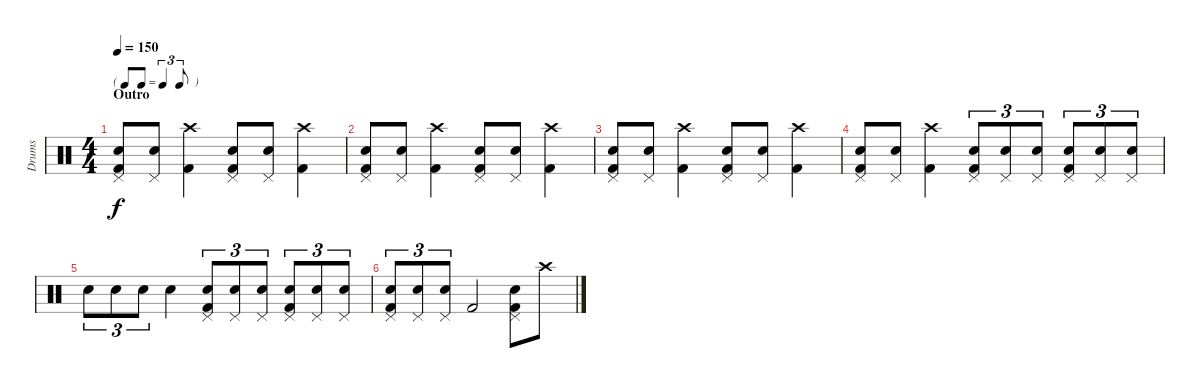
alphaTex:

\track ("Drums" "Drums") {instrument percussion}
\staff {score}
\articulation defaults
\ts (4 4)
\tf triplet8th
\section ("" "Outro")
\tempo 150
\clef neutral
\ks c
("Pedal Hi-Hat (hit)" "Snare (hit) 2" "Kick (hit) 2").8{dy f} ("Pedal Hi-Hat (hit)" "Snare (hit) 2").8 ("Crash high (hit)" "Kick (hit) 2").4 ("Pedal Hi-Hat (hit)" "Snare (hit) 2" "Kick (hit) 2").8 ("Pedal Hi-Hat (hit)" "Snare (hit) 2").8 ("Crash high (hit)" "Kick (hit) 2").4 |
("Pedal Hi-Hat (hit)" "Snare (hit) 2" "Kick (hit) 2").8 ("Pedal Hi-Hat (hit)" "Snare (hit) 2").8 ("Crash high (hit)" "Kick (hit) 2").4 ("Pedal Hi-Hat (hit)" "Snare (hit) 2" "Kick (hit) 2").8 ("Pedal Hi-Hat (hit)" "Snare (hit) 2").8 ("Crash high (hit)" "Kick (hit) 2").4 |
("Pedal Hi-Hat (hit)" "Snare (hit) 2" "Kick (hit) 2").8 ("Pedal Hi-Hat (hit)" "Snare (hit) 2").8 ("Crash high (hit)" "Kick (hit) 2").4 ("Pedal Hi-Hat (hit)" "Snare (hit) 2" "Kick (hit) 2").8 ("Pedal Hi-Hat (hit)" "Snare (hit) 2").8 ("Crash high (hit)" "Kick (hit) 2").4 |
("Pedal Hi-Hat (hit)" "Snare (hit) 2" "Kick (hit) 2").8 ("Pedal Hi-Hat (hit)" "Snare (hit) 2").8 ("Crash high (hit)" "Kick (hit) 2").4 ("Pedal Hi-Hat (hit)" "Snare (hit) 2" "Kick (hit) 2").8{tu (3 2)} ("Pedal Hi-Hat (hit)" "Electric Snare (hit)").8{tu (3 2)} ("Pedal Hi-Hat (hit)" "Snare (hit) 2").8{tu (3 2)} ("Pedal Hi-Hat (hit)" "Snare (hit) 2" "Kick (hit) 2").8{tu (3 2)} ("Pedal Hi-Hat (hit)" "Electric Snare (hit)").8{tu (3 2)} ("Pedal Hi-Hat (hit)" "Snare (hit) 2").8{tu (3 2)} |
"Snare (hit) 2".8{tu (3 2)} "Snare (hit) 2".8{tu (3 2)} "Snare (hit) 2".8{tu (3 2)} "Snare (hit) 2".4 ("Pedal Hi-Hat (hit)" "Snare (hit) 2" "Kick (hit) 2").8{tu (3 2)} ("Pedal Hi-Hat (hit)" "Electric Snare (hit)").8{tu (3 2)} ("Pedal Hi-Hat (hit)" "Snare (hit) 2").8{tu (3 2)} ("Pedal Hi-Hat (hit)" "Snare (hit) 2" "Kick (hit) 2").8{tu (3 2)} ("Pedal Hi-Hat (hit)" "Electric Snare (hit)").8{tu (3 2)} ("Pedal Hi-Hat (hit)" "Snare (hit) 2").8{tu (3 2)} |
("Pedal Hi-Hat (hit)" "Snare (hit) 2" "Kick (hit) 2").8{tu (3 2)} ("Pedal Hi-Hat (hit)" "Electric Snare (hit)").8{tu (3 2)} ("Pedal Hi-Hat (hit)" "Snare (hit) 2").8{tu (3 2)} "Kick (hit) 2".2 ("Pedal Hi-Hat (hit)" "Snare (hit) 2" "Kick (hit) 2").8 "Crash high (hit)".8
